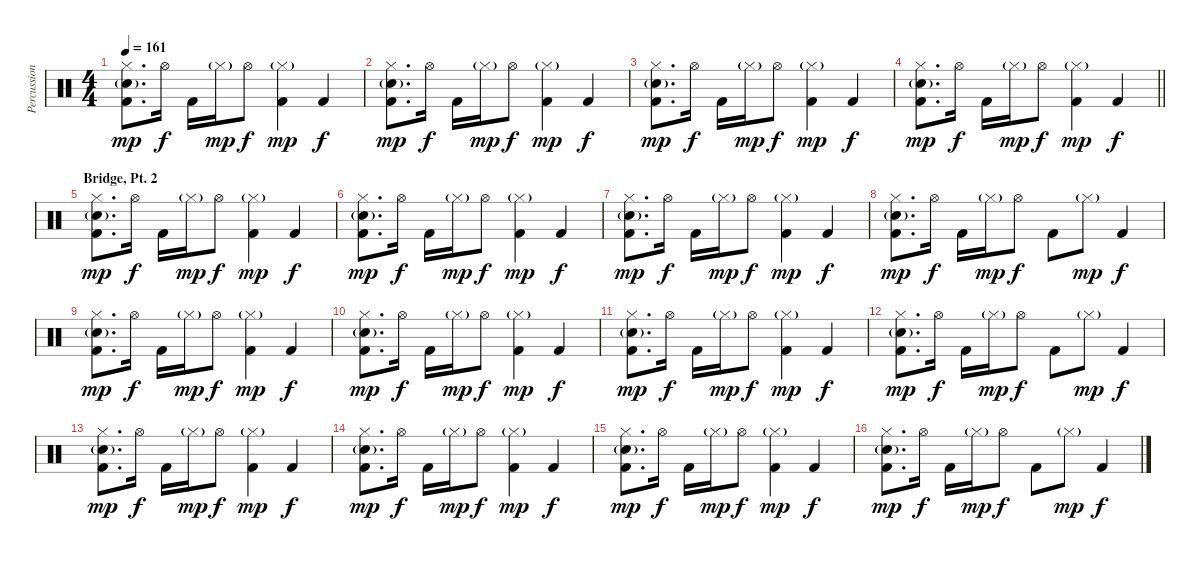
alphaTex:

\track ("Percussion" "Percussion") {instrument percussion}
\staff {score}
\articulation defaults
\ts (4 4)
\tempo 161
\clef neutral
\ks c
("Hi-Hat (closed)" "Snare (hit) 2"{g} "Kick (hit) 2").8{d dy mp} "Hi-Hat (open)".16{dy f} "Kick (hit) 2".16 "Hi-Hat (closed)"{g}.16{dy mp} "Hi-Hat (open)".8{dy f} ("Hi-Hat (closed)"{g} "Kick (hit) 2").4{dy mp} "Kick (hit) 2".4{dy f} |
("Hi-Hat (closed)" "Snare (hit) 2"{g} "Kick (hit) 2").8{d dy mp} "Hi-Hat (open)".16{dy f} "Kick (hit) 2".16 "Hi-Hat (closed)"{g}.16{dy mp} "Hi-Hat (open)".8{dy f} ("Hi-Hat (closed)"{g} "Kick (hit) 2").4{dy mp} "Kick (hit) 2".4{dy f} |
("Hi-Hat (closed)" "Snare (hit) 2"{g} "Kick (hit) 2").8{d dy mp} "Hi-Hat (open)".16{dy f} "Kick (hit) 2".16 "Hi-Hat (closed)"{g}.16{dy mp} "Hi-Hat (open)".8{dy f} ("Hi-Hat (closed)"{g} "Kick (hit) 2").4{dy mp} "Kick (hit) 2".4{dy f} |
\barLineRight lightlight
("Hi-Hat (closed)" "Snare (hit) 2"{g} "Kick (hit) 2").8{d dy mp} "Hi-Hat (open)".16{dy f} "Kick (hit) 2".16 "Hi-Hat (closed)"{g}.16{dy mp} "Hi-Hat (open)".8{dy f} ("Hi-Hat (closed)"{g} "Kick (hit) 2").4{dy mp} "Kick (hit) 2".4{dy f} |
\section ("" "Bridge, Pt. 2")
("Hi-Hat (closed)" "Snare (hit) 2"{g} "Kick (hit) 2").8{d dy mp} "Hi-Hat (open)".16{dy f} "Kick (hit) 2".16 "Hi-Hat (closed)"{g}.16{dy mp} "Hi-Hat (open)".8{dy f} ("Hi-Hat (closed)"{g} "Kick (hit) 2").4{dy mp} "Kick (hit) 2".4{dy f} |
("Hi-Hat (closed)" "Snare (hit) 2"{g} "Kick (hit) 2").8{d dy mp} "Hi-Hat (open)".16{dy f} "Kick (hit) 2".16 "Hi-Hat (closed)"{g}.16{dy mp} "Hi-Hat (open)".8{dy f} ("Hi-Hat (closed)"{g} "Kick (hit) 2").4{dy mp} "Kick (hit) 2".4{dy f} |
("Hi-Hat (closed)" "Snare (hit) 2"{g} "Kick (hit) 2").8{d dy mp} "Hi-Hat (open)".16{dy f} "Kick (hit) 2".16 "Hi-Hat (closed)"{g}.16{dy mp} "Hi-Hat (open)".8{dy f} ("Hi-Hat (closed)"{g} "Kick (hit) 2").4{dy mp} "Kick (hit) 2".4{dy f} |
("Hi-Hat (closed)" "Snare (hit) 2"{g} "Kick (hit) 2").8{d dy mp} "Hi-Hat (open)".16{dy f} "Kick (hit) 2".16 "Hi-Hat (closed)"{g}.16{dy mp} "Hi-Hat (open)".8{dy f} "Kick (hit) 2".8 "Hi-Hat (closed)"{g}.8{dy mp} "Kick (hit) 2".4{dy f} |
("Hi-Hat (closed)" "Snare (hit) 2"{g} "Kick (hit) 2").8{d dy mp} "Hi-Hat (open)".16{dy f} "Kick (hit) 2".16 "Hi-Hat (closed)"{g}.16{dy mp} "Hi-Hat (open)".8{dy f} ("Hi-Hat (closed)"{g} "Kick (hit) 2").4{dy mp} "Kick (hit) 2".4{dy f} |
("Hi-Hat (closed)" "Snare (hit) 2"{g} "Kick (hit) 2").8{d dy mp} "Hi-Hat (open)".16{dy f} "Kick (hit) 2".16 "Hi-Hat (closed)"{g}.16{dy mp} "Hi-Hat (open)".8{dy f} ("Hi-Hat (closed)"{g} "Kick (hit) 2").4{dy mp} "Kick (hit) 2".4{dy f} |
("Hi-Hat (closed)" "Snare (hit) 2"{g} "Kick (hit) 2").8{d dy mp} "Hi-Hat (open)".16{dy f} "Kick (hit) 2".16 "Hi-Hat (closed)"{g}.16{dy mp} "Hi-Hat (open)".8{dy f} ("Hi-Hat (closed)"{g} "Kick (hit) 2").4{dy mp} "Kick (hit) 2".4{dy f} |
("Hi-Hat (closed)" "Snare (hit) 2"{g} "Kick (hit) 2").8{d dy mp} "Hi-Hat (open)".16{dy f} "Kick (hit) 2".16 "Hi-Hat (closed)"{g}.16{dy mp} "Hi-Hat (open)".8{dy f} "Kick (hit) 2".8 "Hi-Hat (closed)"{g}.8{dy mp} "Kick (hit) 2".4{dy f} |
("Hi-Hat (closed)" "Snare (hit) 2"{g} "Kick (hit) 2").8{d dy mp} "Hi-Hat (open)".16{dy f} "Kick (hit) 2".16 "Hi-Hat (closed)"{g}.16{dy mp} "Hi-Hat (open)".8{dy f} ("Hi-Hat (closed)"{g} "Kick (hit) 2").4{dy mp} "Kick (hit) 2".4{dy f} |
("Hi-Hat (closed)" "Snare (hit) 2"{g} "Kick (hit) 2").8{d dy mp} "Hi-Hat (open)".16{dy f} "Kick (hit) 2".16 "Hi-Hat (closed)"{g}.16{dy mp} "Hi-Hat (open)".8{dy f} ("Hi-Hat (closed)"{g} "Kick (hit) 2").4{dy mp} "Kick (hit) 2".4{dy f} |
("Hi-Hat (closed)" "Snare (hit) 2"{g} "Kick (hit) 2").8{d dy mp} "Hi-Hat (open)".16{dy f} "Kick (hit) 2".16 "Hi-Hat (closed)"{g}.16{dy mp} "Hi-Hat (open)".8{dy f} ("Hi-Hat (closed)"{g} "Kick (hit) 2").4{dy mp} "Kick (hit) 2".4{dy f} |
("Hi-Hat (closed)" "Snare (hit) 2"{g} "Kick (hit) 2").8{d dy mp} "Hi-Hat (open)".16{dy f} "Kick (hit) 2".16 "Hi-Hat (closed)"{g}.16{dy mp} "Hi-Hat (open)".8{dy f} "Kick (hit) 2".8 "Hi-Hat (closed)"{g}.8{dy mp} "Kick (hit) 2".4{dy f}
